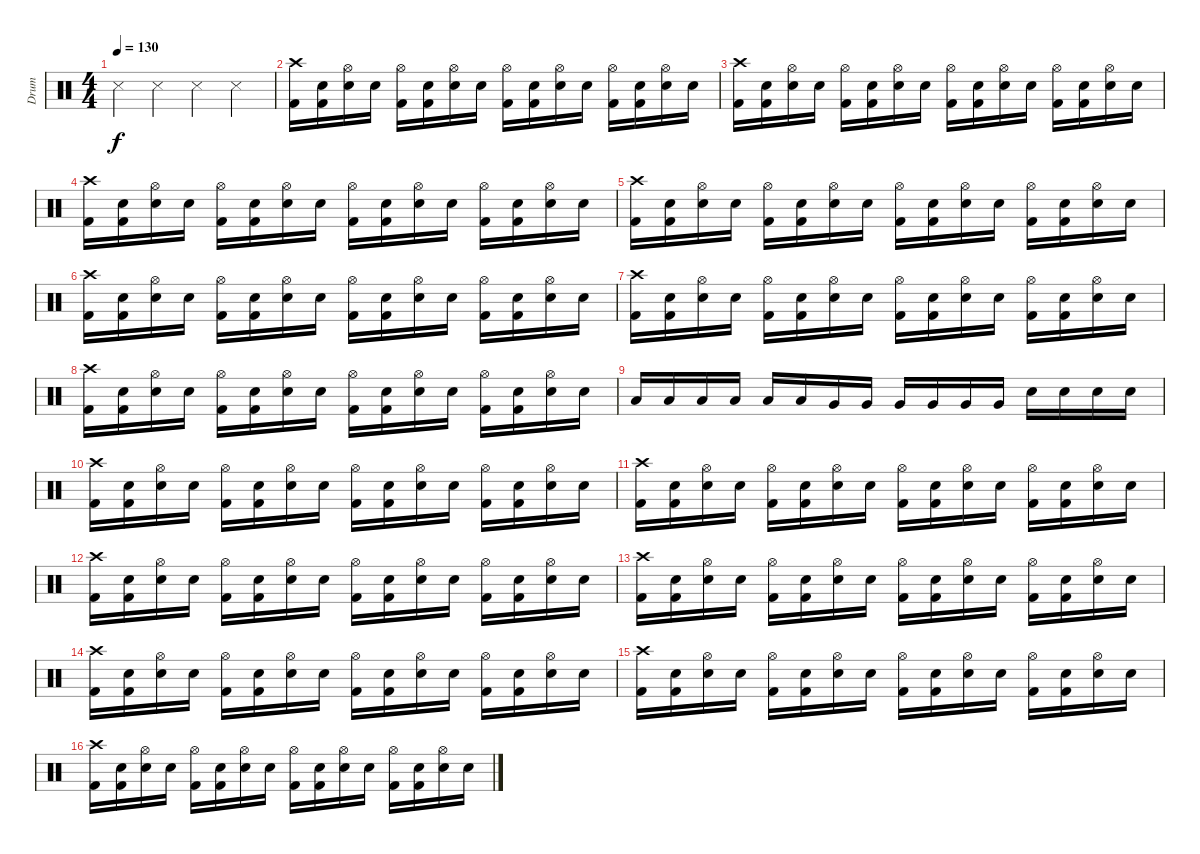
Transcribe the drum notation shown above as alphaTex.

\track ("Drum" "Drum") {instrument percussion}
\staff {score}
\articulation defaults
\ts (4 4)
\tempo 130
\clef neutral
\ks c "Metronome (hit)".4{dy f} "Metronome (hit)".4 "Metronome (hit)".4 "Metronome (hit)".4
|
("Crash high (hit)" "Kick (hit) 2").16 ("Snare (hit)"{x} "Kick (hit) 2").16 ("Hi-Hat (open)" "Electric Snare (hit)").16 "Snare (hit)"{x}.16 ("Hi-Hat (open)" "Kick (hit) 2").16 ("Snare (hit)"{x} "Kick (hit) 2").16 ("Hi-Hat (open)" "Electric Snare (hit)").16 "Snare (hit)"{x}.16 ("Hi-Hat (open)" "Kick (hit) 2").16 ("Snare (hit)"{x} "Kick (hit) 2").16 ("Hi-Hat (open)" "Electric Snare (hit)").16 "Snare (hit)"{x}.16 ("Hi-Hat (open)" "Kick (hit) 2").16 ("Snare (hit)"{x} "Kick (hit) 2").16 ("Hi-Hat (open)" "Electric Snare (hit)").16 "Snare (hit)"{x}.16 |
("Crash high (hit)" "Kick (hit) 2").16 ("Snare (hit)"{x} "Kick (hit) 2").16 ("Hi-Hat (open)" "Electric Snare (hit)").16 "Snare (hit)"{x}.16 ("Hi-Hat (open)" "Kick (hit) 2").16 ("Snare (hit)"{x} "Kick (hit) 2").16 ("Hi-Hat (open)" "Electric Snare (hit)").16 "Snare (hit)"{x}.16 ("Hi-Hat (open)" "Kick (hit) 2").16 ("Snare (hit)"{x} "Kick (hit) 2").16 ("Hi-Hat (open)" "Electric Snare (hit)").16 "Snare (hit)"{x}.16 ("Hi-Hat (open)" "Kick (hit) 2").16 ("Snare (hit)"{x} "Kick (hit) 2").16 ("Hi-Hat (open)" "Electric Snare (hit)").16 "Snare (hit)"{x}.16 |
("Crash high (hit)" "Kick (hit) 2").16 ("Snare (hit)"{x} "Kick (hit) 2").16 ("Hi-Hat (open)" "Electric Snare (hit)").16 "Snare (hit)"{x}.16 ("Hi-Hat (open)" "Kick (hit) 2").16 ("Snare (hit)"{x} "Kick (hit) 2").16 ("Hi-Hat (open)" "Electric Snare (hit)").16 "Snare (hit)"{x}.16 ("Hi-Hat (open)" "Kick (hit) 2").16 ("Snare (hit)"{x} "Kick (hit) 2").16 ("Hi-Hat (open)" "Electric Snare (hit)").16 "Snare (hit)"{x}.16 ("Hi-Hat (open)" "Kick (hit) 2").16 ("Snare (hit)"{x} "Kick (hit) 2").16 ("Hi-Hat (open)" "Electric Snare (hit)").16 "Snare (hit)"{x}.16 |
("Crash high (hit)" "Kick (hit) 2").16 ("Snare (hit)"{x} "Kick (hit) 2").16 ("Hi-Hat (open)" "Electric Snare (hit)").16 "Snare (hit)"{x}.16 ("Hi-Hat (open)" "Kick (hit) 2").16 ("Snare (hit)"{x} "Kick (hit) 2").16 ("Hi-Hat (open)" "Electric Snare (hit)").16 "Snare (hit)"{x}.16 ("Hi-Hat (open)" "Kick (hit) 2").16 ("Snare (hit)"{x} "Kick (hit) 2").16 ("Hi-Hat (open)" "Electric Snare (hit)").16 "Snare (hit)"{x}.16 ("Hi-Hat (open)" "Kick (hit) 2").16 ("Snare (hit)"{x} "Kick (hit) 2").16 ("Hi-Hat (open)" "Electric Snare (hit)").16 "Snare (hit)"{x}.16 |
("Crash high (hit)" "Kick (hit) 2").16 ("Snare (hit)"{x} "Kick (hit) 2").16 ("Hi-Hat (open)" "Electric Snare (hit)").16 "Snare (hit)"{x}.16 ("Hi-Hat (open)" "Kick (hit) 2").16 ("Snare (hit)"{x} "Kick (hit) 2").16 ("Hi-Hat (open)" "Electric Snare (hit)").16 "Snare (hit)"{x}.16 ("Hi-Hat (open)" "Kick (hit) 2").16 ("Snare (hit)"{x} "Kick (hit) 2").16 ("Hi-Hat (open)" "Electric Snare (hit)").16 "Snare (hit)"{x}.16 ("Hi-Hat (open)" "Kick (hit) 2").16 ("Snare (hit)"{x} "Kick (hit) 2").16 ("Hi-Hat (open)" "Electric Snare (hit)").16 "Snare (hit)"{x}.16 |
("Crash high (hit)" "Kick (hit) 2").16 ("Snare (hit)"{x} "Kick (hit) 2").16 ("Hi-Hat (open)" "Electric Snare (hit)").16 "Snare (hit)"{x}.16 ("Hi-Hat (open)" "Kick (hit) 2").16 ("Snare (hit)"{x} "Kick (hit) 2").16 ("Hi-Hat (open)" "Electric Snare (hit)").16 "Snare (hit)"{x}.16 ("Hi-Hat (open)" "Kick (hit) 2").16 ("Snare (hit)"{x} "Kick (hit) 2").16 ("Hi-Hat (open)" "Electric Snare (hit)").16 "Snare (hit)"{x}.16 ("Hi-Hat (open)" "Kick (hit) 2").16 ("Snare (hit)"{x} "Kick (hit) 2").16 ("Hi-Hat (open)" "Electric Snare (hit)").16 "Snare (hit)"{x}.16 |
("Crash high (hit)" "Kick (hit) 2").16 ("Snare (hit)"{x} "Kick (hit) 2").16 ("Hi-Hat (open)" "Electric Snare (hit)").16 "Snare (hit)"{x}.16 ("Hi-Hat (open)" "Kick (hit) 2").16 ("Snare (hit)"{x} "Kick (hit) 2").16 ("Hi-Hat (open)" "Electric Snare (hit)").16 "Snare (hit)"{x}.16 ("Hi-Hat (open)" "Kick (hit) 2").16 ("Snare (hit)"{x} "Kick (hit) 2").16 ("Hi-Hat (open)" "Electric Snare (hit)").16 "Snare (hit)"{x}.16 ("Hi-Hat (open)" "Kick (hit) 2").16 ("Snare (hit)"{x} "Kick (hit) 2").16 ("Hi-Hat (open)" "Electric Snare (hit)").16 "Snare (hit)"{x}.16 |
"Low Tom (hit)".16 "Low Tom (hit)".16 "Low Tom (hit)".16 "Low Tom (hit)".16 "Low Tom (hit)".16 "Low Tom (hit)".16 "Very Low Tom (hit)".16 "Very Low Tom (hit)".16 "Very Low Tom (hit)".16 "Very Low Tom (hit)".16 "Very Low Tom (hit)".16 "Very Low Tom (hit)".16 "Electric Snare (hit)".16 "Electric Snare (hit)".16 "Electric Snare (hit)".16 "Electric Snare (hit)".16 |
("Crash high (hit)" "Kick (hit) 2").16 ("Snare (hit)"{x} "Kick (hit) 2").16 ("Hi-Hat (open)" "Electric Snare (hit)").16 "Snare (hit)"{x}.16 ("Hi-Hat (open)" "Kick (hit) 2").16 ("Snare (hit)"{x} "Kick (hit) 2").16 ("Hi-Hat (open)" "Electric Snare (hit)").16 "Snare (hit)"{x}.16 ("Hi-Hat (open)" "Kick (hit) 2").16 ("Snare (hit)"{x} "Kick (hit) 2").16 ("Hi-Hat (open)" "Electric Snare (hit)").16 "Snare (hit)"{x}.16 ("Hi-Hat (open)" "Kick (hit) 2").16 ("Snare (hit)"{x} "Kick (hit) 2").16 ("Hi-Hat (open)" "Electric Snare (hit)").16 "Snare (hit)"{x}.16 |
("Crash high (hit)" "Kick (hit) 2").16 ("Snare (hit)"{x} "Kick (hit) 2").16 ("Hi-Hat (open)" "Electric Snare (hit)").16 "Snare (hit)"{x}.16 ("Hi-Hat (open)" "Kick (hit) 2").16 ("Snare (hit)"{x} "Kick (hit) 2").16 ("Hi-Hat (open)" "Electric Snare (hit)").16 "Snare (hit)"{x}.16 ("Hi-Hat (open)" "Kick (hit) 2").16 ("Snare (hit)"{x} "Kick (hit) 2").16 ("Hi-Hat (open)" "Electric Snare (hit)").16 "Snare (hit)"{x}.16 ("Hi-Hat (open)" "Kick (hit) 2").16 ("Snare (hit)"{x} "Kick (hit) 2").16 ("Hi-Hat (open)" "Electric Snare (hit)").16 "Snare (hit)"{x}.16 |
("Crash high (hit)" "Kick (hit) 2").16 ("Snare (hit)"{x} "Kick (hit) 2").16 ("Hi-Hat (open)" "Electric Snare (hit)").16 "Snare (hit)"{x}.16 ("Hi-Hat (open)" "Kick (hit) 2").16 ("Snare (hit)"{x} "Kick (hit) 2").16 ("Hi-Hat (open)" "Electric Snare (hit)").16 "Snare (hit)"{x}.16 ("Hi-Hat (open)" "Kick (hit) 2").16 ("Snare (hit)"{x} "Kick (hit) 2").16 ("Hi-Hat (open)" "Electric Snare (hit)").16 "Snare (hit)"{x}.16 ("Hi-Hat (open)" "Kick (hit) 2").16 ("Snare (hit)"{x} "Kick (hit) 2").16 ("Hi-Hat (open)" "Electric Snare (hit)").16 "Snare (hit)"{x}.16 |
("Crash high (hit)" "Kick (hit) 2").16 ("Snare (hit)"{x} "Kick (hit) 2").16 ("Hi-Hat (open)" "Electric Snare (hit)").16 "Snare (hit)"{x}.16 ("Hi-Hat (open)" "Kick (hit) 2").16 ("Snare (hit)"{x} "Kick (hit) 2").16 ("Hi-Hat (open)" "Electric Snare (hit)").16 "Snare (hit)"{x}.16 ("Hi-Hat (open)" "Kick (hit) 2").16 ("Snare (hit)"{x} "Kick (hit) 2").16 ("Hi-Hat (open)" "Electric Snare (hit)").16 "Snare (hit)"{x}.16 ("Hi-Hat (open)" "Kick (hit) 2").16 ("Snare (hit)"{x} "Kick (hit) 2").16 ("Hi-Hat (open)" "Electric Snare (hit)").16 "Snare (hit)"{x}.16 |
("Crash high (hit)" "Kick (hit) 2").16 ("Snare (hit)"{x} "Kick (hit) 2").16 ("Hi-Hat (open)" "Electric Snare (hit)").16 "Snare (hit)"{x}.16 ("Hi-Hat (open)" "Kick (hit) 2").16 ("Snare (hit)"{x} "Kick (hit) 2").16 ("Hi-Hat (open)" "Electric Snare (hit)").16 "Snare (hit)"{x}.16 ("Hi-Hat (open)" "Kick (hit) 2").16 ("Snare (hit)"{x} "Kick (hit) 2").16 ("Hi-Hat (open)" "Electric Snare (hit)").16 "Snare (hit)"{x}.16 ("Hi-Hat (open)" "Kick (hit) 2").16 ("Snare (hit)"{x} "Kick (hit) 2").16 ("Hi-Hat (open)" "Electric Snare (hit)").16 "Snare (hit)"{x}.16 |
("Crash high (hit)" "Kick (hit) 2").16 ("Snare (hit)"{x} "Kick (hit) 2").16 ("Hi-Hat (open)" "Electric Snare (hit)").16 "Snare (hit)"{x}.16 ("Hi-Hat (open)" "Kick (hit) 2").16 ("Snare (hit)"{x} "Kick (hit) 2").16 ("Hi-Hat (open)" "Electric Snare (hit)").16 "Snare (hit)"{x}.16 ("Hi-Hat (open)" "Kick (hit) 2").16 ("Snare (hit)"{x} "Kick (hit) 2").16 ("Hi-Hat (open)" "Electric Snare (hit)").16 "Snare (hit)"{x}.16 ("Hi-Hat (open)" "Kick (hit) 2").16 ("Snare (hit)"{x} "Kick (hit) 2").16 ("Hi-Hat (open)" "Electric Snare (hit)").16 "Snare (hit)"{x}.16 |
("Crash high (hit)" "Kick (hit) 2").16 ("Snare (hit)"{x} "Kick (hit) 2").16 ("Hi-Hat (open)" "Electric Snare (hit)").16 "Snare (hit)"{x}.16 ("Hi-Hat (open)" "Kick (hit) 2").16 ("Snare (hit)"{x} "Kick (hit) 2").16 ("Hi-Hat (open)" "Electric Snare (hit)").16 "Snare (hit)"{x}.16 ("Hi-Hat (open)" "Kick (hit) 2").16 ("Snare (hit)"{x} "Kick (hit) 2").16 ("Hi-Hat (open)" "Electric Snare (hit)").16 "Snare (hit)"{x}.16 ("Hi-Hat (open)" "Kick (hit) 2").16 ("Snare (hit)"{x} "Kick (hit) 2").16 ("Hi-Hat (open)" "Electric Snare (hit)").16 "Snare (hit)"{x}.16
